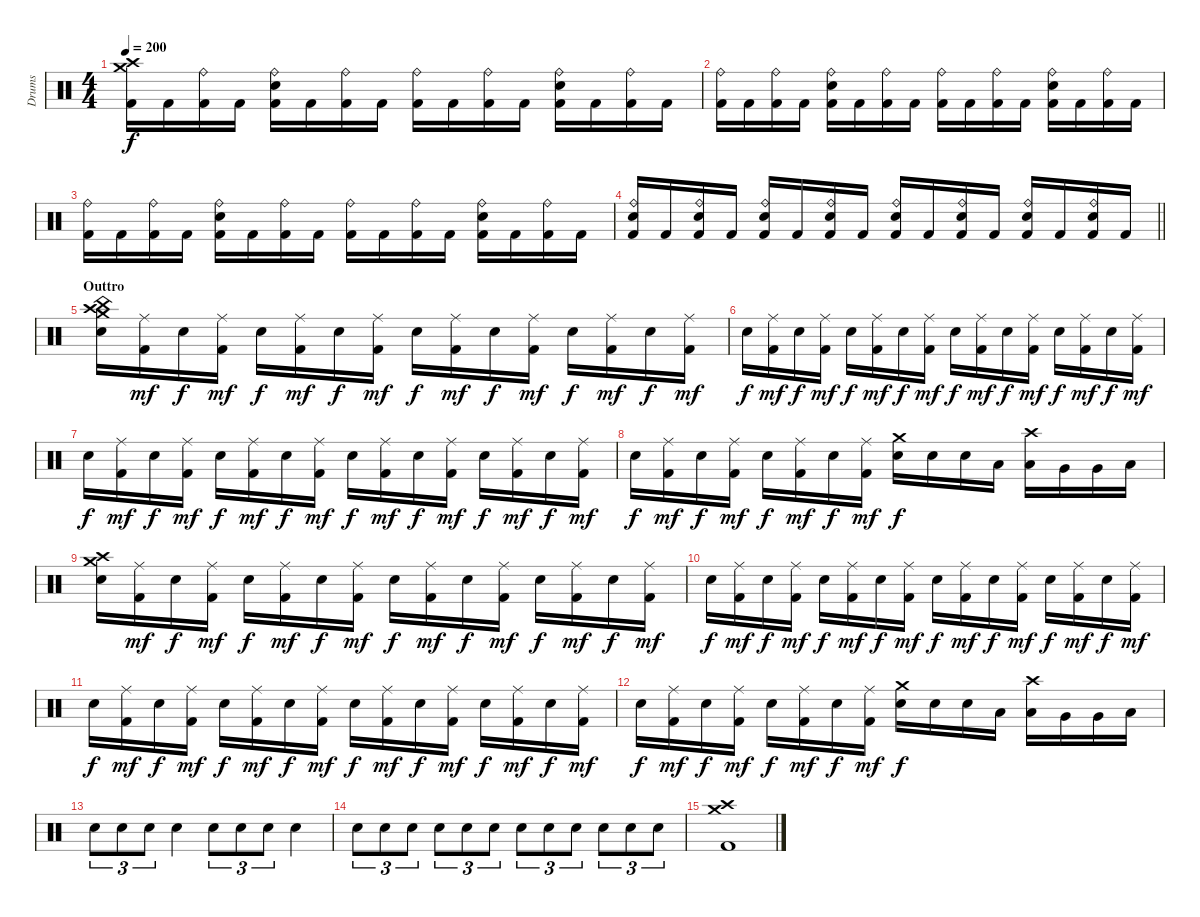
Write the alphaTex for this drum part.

\track ("Drums" "Drums") {instrument percussion}
\staff {score}
\articulation defaults
\ts (4 4)
\tempo 200
\clef neutral
\ks c
("Crash high (hit)" "Crash medium (hit)" "Kick (hit) 2").16{dy f} "Kick (hit) 2".16 ("Ride (bell)" "Kick (hit) 2").16 "Kick (hit) 2".16 ("Ride (bell)" "Snare (hit) 2" "Kick (hit) 2").16 "Kick (hit) 2".16 ("Ride (bell)" "Kick (hit) 2").16 "Kick (hit) 2".16 ("Ride (bell)" "Kick (hit) 2").16 "Kick (hit) 2".16 ("Ride (bell)" "Kick (hit) 2").16 "Kick (hit) 2".16 ("Ride (bell)" "Snare (hit) 2" "Kick (hit) 2").16 "Kick (hit) 2".16 ("Ride (bell)" "Kick (hit) 2").16 "Kick (hit) 2".16 |
("Ride (bell)" "Kick (hit) 2").16 "Kick (hit) 2".16 ("Ride (bell)" "Kick (hit) 2").16 "Kick (hit) 2".16 ("Ride (bell)" "Snare (hit) 2" "Kick (hit) 2").16 "Kick (hit) 2".16 ("Ride (bell)" "Kick (hit) 2").16 "Kick (hit) 2".16 ("Ride (bell)" "Kick (hit) 2").16 "Kick (hit) 2".16 ("Ride (bell)" "Kick (hit) 2").16 "Kick (hit) 2".16 ("Ride (bell)" "Snare (hit) 2" "Kick (hit) 2").16 "Kick (hit) 2".16 ("Ride (bell)" "Kick (hit) 2").16 "Kick (hit) 2".16 |
("Ride (bell)" "Kick (hit) 2").16 "Kick (hit) 2".16 ("Ride (bell)" "Kick (hit) 2").16 "Kick (hit) 2".16 ("Ride (bell)" "Snare (hit) 2" "Kick (hit) 2").16 "Kick (hit) 2".16 ("Ride (bell)" "Kick (hit) 2").16 "Kick (hit) 2".16 ("Ride (bell)" "Kick (hit) 2").16 "Kick (hit) 2".16 ("Ride (bell)" "Kick (hit) 2").16 "Kick (hit) 2".16 ("Ride (bell)" "Snare (hit) 2" "Kick (hit) 2").16 "Kick (hit) 2".16 ("Ride (bell)" "Kick (hit) 2").16 "Kick (hit) 2".16 |
\barLineRight lightlight
("Ride (bell)" "Snare (hit) 2" "Kick (hit) 2").16 "Kick (hit) 2".16 ("Ride (bell)" "Snare (hit) 2" "Kick (hit) 2").16 "Kick (hit) 2".16 ("Ride (bell)" "Snare (hit) 2" "Kick (hit) 2").16 "Kick (hit) 2".16 ("Ride (bell)" "Snare (hit) 2" "Kick (hit) 2").16 "Kick (hit) 2".16 ("Ride (bell)" "Snare (hit) 2" "Kick (hit) 2").16 "Kick (hit) 2".16 ("Ride (bell)" "Snare (hit) 2" "Kick (hit) 2").16 "Kick (hit) 2".16 ("Ride (bell)" "Snare (hit) 2" "Kick (hit) 2").16 "Kick (hit) 2".16 ("Ride (bell)" "Snare (hit) 2" "Kick (hit) 2").16 "Kick (hit) 2".16 |
\section ("" "Outtro")
("Crash medium (hit)" "Crash high (hit)" "China (hit)" "Snare (hit) 2").16 ("Ride (middle)" "Kick (hit) 2").16{dy mf} "Snare (hit) 2".16{dy f} ("Ride (middle)" "Kick (hit) 2").16{dy mf} "Snare (hit) 2".16{dy f} ("Ride (middle)" "Kick (hit) 2").16{dy mf} "Snare (hit) 2".16{dy f} ("Ride (middle)" "Kick (hit) 2").16{dy mf} "Snare (hit) 2".16{dy f} ("Ride (middle)" "Kick (hit) 2").16{dy mf} "Snare (hit) 2".16{dy f} ("Ride (middle)" "Kick (hit) 2").16{dy mf} "Snare (hit) 2".16{dy f} ("Ride (middle)" "Kick (hit) 2").16{dy mf} "Snare (hit) 2".16{dy f} ("Ride (middle)" "Kick (hit) 2").16{dy mf} |
"Snare (hit) 2".16{dy f} ("Ride (middle)" "Kick (hit) 2").16{dy mf} "Snare (hit) 2".16{dy f} ("Ride (middle)" "Kick (hit) 2").16{dy mf} "Snare (hit) 2".16{dy f} ("Ride (middle)" "Kick (hit) 2").16{dy mf} "Snare (hit) 2".16{dy f} ("Ride (middle)" "Kick (hit) 2").16{dy mf} "Snare (hit) 2".16{dy f} ("Ride (middle)" "Kick (hit) 2").16{dy mf} "Snare (hit) 2".16{dy f} ("Ride (middle)" "Kick (hit) 2").16{dy mf} "Snare (hit) 2".16{dy f} ("Ride (middle)" "Kick (hit) 2").16{dy mf} "Snare (hit) 2".16{dy f} ("Ride (middle)" "Kick (hit) 2").16{dy mf} |
"Snare (hit) 2".16{dy f} ("Ride (middle)" "Kick (hit) 2").16{dy mf} "Snare (hit) 2".16{dy f} ("Ride (middle)" "Kick (hit) 2").16{dy mf} "Snare (hit) 2".16{dy f} ("Ride (middle)" "Kick (hit) 2").16{dy mf} "Snare (hit) 2".16{dy f} ("Ride (middle)" "Kick (hit) 2").16{dy mf} "Snare (hit) 2".16{dy f} ("Ride (middle)" "Kick (hit) 2").16{dy mf} "Snare (hit) 2".16{dy f} ("Ride (middle)" "Kick (hit) 2").16{dy mf} "Snare (hit) 2".16{dy f} ("Ride (middle)" "Kick (hit) 2").16{dy mf} "Snare (hit) 2".16{dy f} ("Ride (middle)" "Kick (hit) 2").16{dy mf} |
"Snare (hit) 2".16{dy f} ("Ride (middle)" "Kick (hit) 2").16{dy mf} "Snare (hit) 2".16{dy f} ("Ride (middle)" "Kick (hit) 2").16{dy mf} "Snare (hit) 2".16{dy f} ("Ride (middle)" "Kick (hit) 2").16{dy mf} "Snare (hit) 2".16{dy f} ("Ride (middle)" "Kick (hit) 2").16{dy mf} ("Crash medium (hit)" "Snare (hit) 2").16{dy f} "Snare (hit) 2".16 "Snare (hit) 2".16 "Low Tom (hit)".16 ("Crash high (hit)" "Low Tom (hit)").16 "Very Low Tom (hit)".16 "Very Low Tom (hit)".16 "Low Floor Tom (hit)".16 |
("Crash medium (hit)" "Crash high (hit)" "Snare (hit) 2").16 ("Ride (middle)" "Kick (hit) 2").16{dy mf} "Snare (hit) 2".16{dy f} ("Ride (middle)" "Kick (hit) 2").16{dy mf} "Snare (hit) 2".16{dy f} ("Ride (middle)" "Kick (hit) 2").16{dy mf} "Snare (hit) 2".16{dy f} ("Ride (middle)" "Kick (hit) 2").16{dy mf} "Snare (hit) 2".16{dy f} ("Ride (middle)" "Kick (hit) 2").16{dy mf} "Snare (hit) 2".16{dy f} ("Ride (middle)" "Kick (hit) 2").16{dy mf} "Snare (hit) 2".16{dy f} ("Ride (middle)" "Kick (hit) 2").16{dy mf} "Snare (hit) 2".16{dy f} ("Ride (middle)" "Kick (hit) 2").16{dy mf} |
"Snare (hit) 2".16{dy f} ("Ride (middle)" "Kick (hit) 2").16{dy mf} "Snare (hit) 2".16{dy f} ("Ride (middle)" "Kick (hit) 2").16{dy mf} "Snare (hit) 2".16{dy f} ("Ride (middle)" "Kick (hit) 2").16{dy mf} "Snare (hit) 2".16{dy f} ("Ride (middle)" "Kick (hit) 2").16{dy mf} "Snare (hit) 2".16{dy f} ("Ride (middle)" "Kick (hit) 2").16{dy mf} "Snare (hit) 2".16{dy f} ("Ride (middle)" "Kick (hit) 2").16{dy mf} "Snare (hit) 2".16{dy f} ("Ride (middle)" "Kick (hit) 2").16{dy mf} "Snare (hit) 2".16{dy f} ("Ride (middle)" "Kick (hit) 2").16{dy mf} |
"Snare (hit) 2".16{dy f} ("Ride (middle)" "Kick (hit) 2").16{dy mf} "Snare (hit) 2".16{dy f} ("Ride (middle)" "Kick (hit) 2").16{dy mf} "Snare (hit) 2".16{dy f} ("Ride (middle)" "Kick (hit) 2").16{dy mf} "Snare (hit) 2".16{dy f} ("Ride (middle)" "Kick (hit) 2").16{dy mf} "Snare (hit) 2".16{dy f} ("Ride (middle)" "Kick (hit) 2").16{dy mf} "Snare (hit) 2".16{dy f} ("Ride (middle)" "Kick (hit) 2").16{dy mf} "Snare (hit) 2".16{dy f} ("Ride (middle)" "Kick (hit) 2").16{dy mf} "Snare (hit) 2".16{dy f} ("Ride (middle)" "Kick (hit) 2").16{dy mf} |
"Snare (hit) 2".16{dy f} ("Ride (middle)" "Kick (hit) 2").16{dy mf} "Snare (hit) 2".16{dy f} ("Ride (middle)" "Kick (hit) 2").16{dy mf} "Snare (hit) 2".16{dy f} ("Ride (middle)" "Kick (hit) 2").16{dy mf} "Snare (hit) 2".16{dy f} ("Ride (middle)" "Kick (hit) 2").16{dy mf} ("Crash medium (hit)" "Snare (hit) 2").16{dy f} "Snare (hit) 2".16 "Snare (hit) 2".16 "Low Tom (hit)".16 ("Crash high (hit)" "Low Tom (hit)").16 "Very Low Tom (hit)".16 "Very Low Tom (hit)".16 "Low Floor Tom (hit)".16 |
"Snare (hit) 2".8{tu (3 2)} "Snare (hit) 2".8{tu (3 2)} "Snare (hit) 2".8{tu (3 2)} "Snare (hit) 2".4 "Snare (hit) 2".8{tu (3 2)} "Snare (hit) 2".8{tu (3 2)} "Snare (hit) 2".8{tu (3 2)} "Snare (hit) 2".4 |
"Snare (hit) 2".8{tu (3 2)} "Snare (hit) 2".8{tu (3 2)} "Snare (hit) 2".8{tu (3 2)} "Snare (hit) 2".8{tu (3 2)} "Snare (hit) 2".8{tu (3 2)} "Snare (hit) 2".8{tu (3 2)} "Snare (hit) 2".8{tu (3 2)} "Snare (hit) 2".8{tu (3 2)} "Snare (hit) 2".8{tu (3 2)} "Snare (hit) 2".8{tu (3 2)} "Snare (hit) 2".8{tu (3 2)} "Snare (hit) 2".8{tu (3 2)} |
("Crash medium (hit)" "Crash high (hit)" "Kick (hit) 2").1
